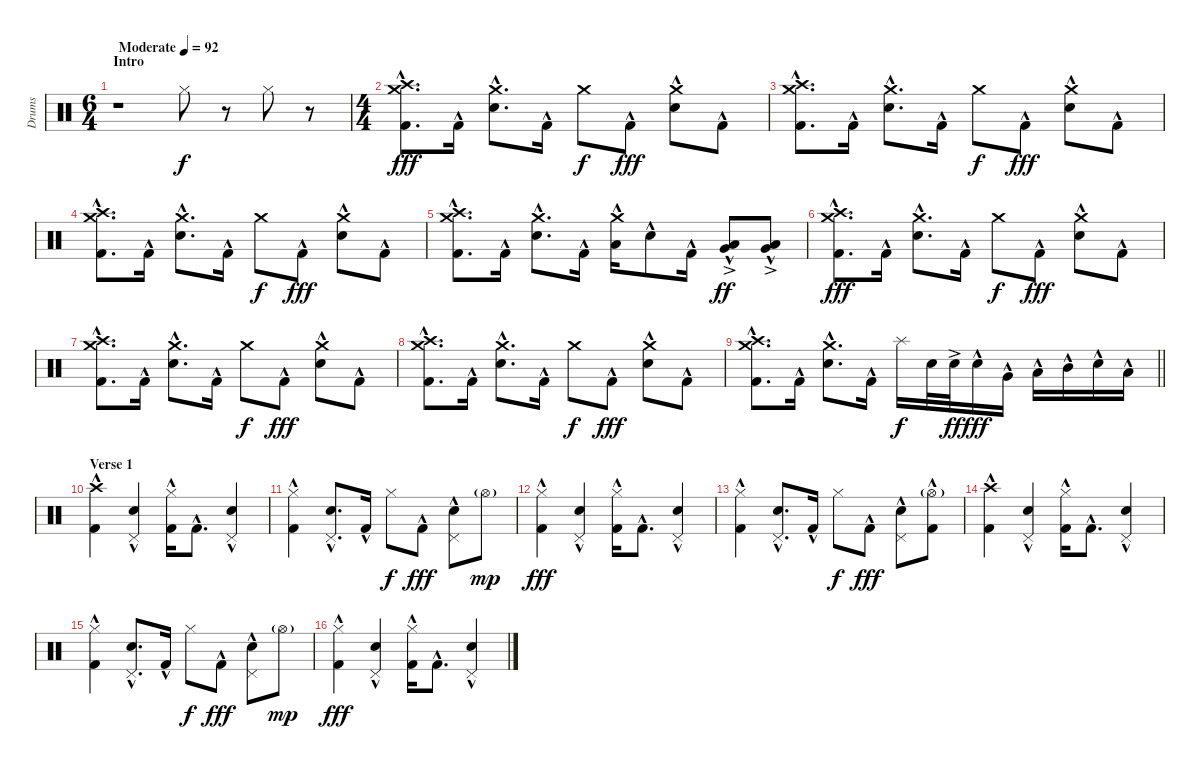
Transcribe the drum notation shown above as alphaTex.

\track ("Drums" "Drums") {instrument percussion}
\staff {score}
\articulation defaults
\ts (6 4)
\section ("" "Intro")
\tempo (92 "Moderate")
\clef neutral
\ks c
r.1{dy f} "Hi-Hat (closed)".8 r.8 "Hi-Hat (closed)".8 r.8 |
\ts (4 4)
("Crash medium (hit)" "Crash high (hit)" "Kick (hit) 2"{hac}).8{d dy fff} "Kick (hit) 2"{hac}.16 ("Crash medium (hit)" "Electric Snare (hit)"{hac}).8{d} "Kick (hit) 2"{hac}.16 "Crash medium (hit)".8{dy f} "Kick (hit) 2"{hac}.8{dy fff} ("Crash medium (hit)" "Electric Snare (hit)"{hac}).8 "Kick (hit) 2"{hac}.8 |
("Crash medium (hit)" "Crash high (hit)" "Kick (hit) 2"{hac}).8{d} "Kick (hit) 2"{hac}.16 ("Crash medium (hit)" "Electric Snare (hit)"{hac}).8{d} "Kick (hit) 2"{hac}.16 "Crash medium (hit)".8{dy f} "Kick (hit) 2"{hac}.8{dy fff} ("Crash medium (hit)" "Electric Snare (hit)"{hac}).8 "Kick (hit) 2"{hac}.8 |
("Crash medium (hit)" "Crash high (hit)" "Kick (hit) 2"{hac}).8{d} "Kick (hit) 2"{hac}.16 ("Crash medium (hit)" "Electric Snare (hit)"{hac}).8{d} "Kick (hit) 2"{hac}.16 "Crash medium (hit)".8{dy f} "Kick (hit) 2"{hac}.8{dy fff} ("Crash medium (hit)" "Electric Snare (hit)"{hac}).8 "Kick (hit) 2"{hac}.8 |
("Crash medium (hit)" "Crash high (hit)" "Kick (hit) 2"{hac}).8{d} "Kick (hit) 2"{hac}.16 ("Crash medium (hit)" "Electric Snare (hit)"{hac}).8{d} "Kick (hit) 2"{hac}.16 ("Crash medium (hit)" "Low Floor Tom (hit)"{hac}).16 "Electric Snare (hit)"{hac}.8 "Kick (hit) 2"{hac}.16 ("Very Low Tom (hit)"{hac} "Low Floor Tom (hit)"{ac}).8{dy ff} ("Low Tom (hit)"{hac} "Very Low Tom (hit)"{ac}).8 |
("Crash medium (hit)" "Crash high (hit)" "Kick (hit) 2"{hac}).8{d dy fff} "Kick (hit) 2"{hac}.16 ("Crash medium (hit)" "Electric Snare (hit)"{hac}).8{d} "Kick (hit) 2"{hac}.16 "Crash medium (hit)".8{dy f} "Kick (hit) 2"{hac}.8{dy fff} ("Crash medium (hit)" "Electric Snare (hit)"{hac}).8 "Kick (hit) 2"{hac}.8 |
("Crash medium (hit)" "Crash high (hit)" "Kick (hit) 2"{hac}).8{d} "Kick (hit) 2"{hac}.16 ("Crash medium (hit)" "Electric Snare (hit)"{hac}).8{d} "Kick (hit) 2"{hac}.16 "Crash medium (hit)".8{dy f} "Kick (hit) 2"{hac}.8{dy fff} ("Crash medium (hit)" "Electric Snare (hit)"{hac}).8 "Kick (hit) 2"{hac}.8 |
("Crash medium (hit)" "Crash high (hit)" "Kick (hit) 2"{hac}).8{d} "Kick (hit) 2"{hac}.16 ("Crash medium (hit)" "Electric Snare (hit)"{hac}).8{d} "Kick (hit) 2"{hac}.16 "Crash medium (hit)".8{dy f} "Kick (hit) 2"{hac}.8{dy fff} ("Crash medium (hit)" "Electric Snare (hit)"{hac}).8 "Kick (hit) 2"{hac}.8 |
\barLineRight lightlight
("Crash medium (hit)" "Crash high (hit)" "Kick (hit) 2"{hac}).8{d} "Kick (hit) 2"{hac}.16 ("Crash medium (hit)" "Electric Snare (hit)"{hac}).8{d} "Kick (hit) 2"{hac}.16 "Splash (hit)".16{dy f} "Electric Snare (hit)".32 "Electric Snare (hit)"{ac}.32{dy ff} "Electric Snare (hit)"{hac}.16{dy fff} "Very Low Tom (hit)"{hac}.16 "Low Tom (hit)"{hac}.16 "Mid Tom (hit)"{hac}.16 "Electric Snare (hit)"{hac}.16 "Low Tom (hit)"{hac}.16 |
\section ("" "Verse 1")
("Crash high (hit)" "Kick (hit) 2"{hac}).4 ("Pedal Hi-Hat (hit)" "Electric Snare (hit)"{hac}).4 ("Hi-Hat (closed)" "Kick (hit) 2"{hac}).16 "Kick (hit) 2"{hac}.8{d} ("Pedal Hi-Hat (hit)" "Electric Snare (hit)"{hac}).4 |
("Hi-Hat (closed)" "Kick (hit) 2"{hac}).4 ("Pedal Hi-Hat (hit)" "Electric Snare (hit)"{hac}).8{d} "Kick (hit) 2"{hac}.16 "Hi-Hat (closed)".8{dy f} "Kick (hit) 2"{hac}.8{dy fff} ("Pedal Hi-Hat (hit)" "Electric Snare (hit)"{hac}).8 "Hi-Hat (open)"{g}.8{dy mp} |
("Hi-Hat (closed)" "Kick (hit) 2"{hac}).4{dy fff} ("Pedal Hi-Hat (hit)" "Electric Snare (hit)"{hac}).4 ("Hi-Hat (closed)" "Kick (hit) 2"{hac}).16 "Kick (hit) 2"{hac}.8{d} ("Pedal Hi-Hat (hit)" "Electric Snare (hit)"{hac}).4 |
("Hi-Hat (closed)" "Kick (hit) 2"{hac}).4 ("Pedal Hi-Hat (hit)" "Electric Snare (hit)"{hac}).8{d} "Kick (hit) 2"{hac}.16 "Hi-Hat (closed)".8{dy f} "Kick (hit) 2"{hac}.8{dy fff} ("Pedal Hi-Hat (hit)" "Electric Snare (hit)"{hac}).8 ("Hi-Hat (open)"{g} "Kick (hit) 2"{hac}).8 |
("Crash high (hit)" "Kick (hit) 2"{hac}).4 ("Pedal Hi-Hat (hit)" "Electric Snare (hit)"{hac}).4 ("Hi-Hat (closed)" "Kick (hit) 2"{hac}).16 "Kick (hit) 2"{hac}.8{d} ("Pedal Hi-Hat (hit)" "Electric Snare (hit)"{hac}).4 |
("Hi-Hat (closed)" "Kick (hit) 2"{hac}).4 ("Pedal Hi-Hat (hit)" "Electric Snare (hit)"{hac}).8{d} "Kick (hit) 2"{hac}.16 "Hi-Hat (closed)".8{dy f} "Kick (hit) 2"{hac}.8{dy fff} ("Pedal Hi-Hat (hit)" "Electric Snare (hit)"{hac}).8 "Hi-Hat (open)"{g}.8{dy mp} |
("Hi-Hat (closed)" "Kick (hit) 2"{hac}).4{dy fff} ("Pedal Hi-Hat (hit)" "Electric Snare (hit)"{hac}).4 ("Hi-Hat (closed)" "Kick (hit) 2"{hac}).16 "Kick (hit) 2"{hac}.8{d} ("Pedal Hi-Hat (hit)" "Electric Snare (hit)"{hac}).4
